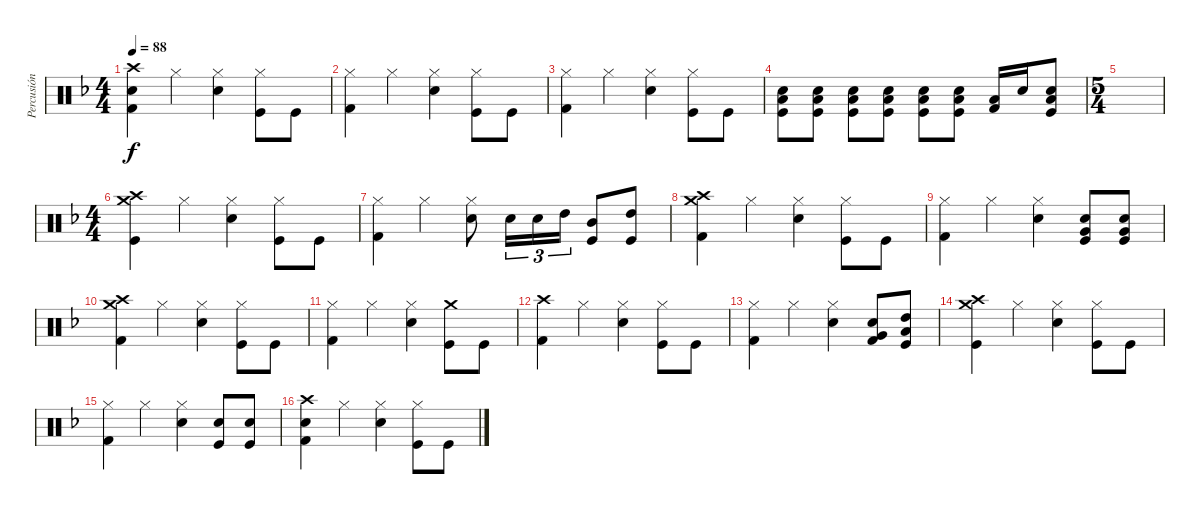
\track ("Percusión" "Percusión") {instrument percussion}
\staff {score}
\articulation defaults
\ts (4 4)
\tempo 88
\clef neutral
\ks f
("Crash high (hit)" "Snare (hit) 2" "Kick (hit) 2").4{dy f} "Hi-Hat (closed)".4 ("Snare (hit) 2" "Hi-Hat (closed)").4 ("Kick (hit)" "Hi-Hat (closed)").8 "Kick (hit)".8 |
("Hi-Hat (closed)" "Kick (hit) 2").4 "Hi-Hat (closed)".4 ("Snare (hit) 2" "Hi-Hat (closed)").4 ("Kick (hit)" "Hi-Hat (closed)").8 "Kick (hit)".8 |
("Hi-Hat (closed)" "Kick (hit) 2").4 "Hi-Hat (closed)".4 ("Snare (hit) 2" "Hi-Hat (closed)").4 ("Kick (hit)" "Hi-Hat (closed)").8 "Kick (hit)".8 |
("Snare (hit) 2" "Low Floor Tom (hit)" "Kick (hit)").8 ("Snare (hit) 2" "Low Floor Tom (hit)" "Kick (hit)").8 ("Snare (hit) 2" "Low Floor Tom (hit)" "Kick (hit)").8 ("Snare (hit) 2" "Low Floor Tom (hit)" "Kick (hit)").8 ("Snare (hit) 2" "Low Floor Tom (hit)" "Kick (hit)").8 ("Snare (hit) 2" "Low Floor Tom (hit)" "Kick (hit)").8 ("Low Floor Tom (hit)" "Kick (hit) 2").16 "Snare (hit) 2".16 ("Snare (hit) 2" "Low Floor Tom (hit)" "Kick (hit)").8 |
\ts (5 4)
|
\ts (4 4)
("Crash high (hit)" "Kick (hit)" "Crash medium (hit)").4 "Hi-Hat (closed)".4 ("Snare (hit) 2" "Hi-Hat (closed)").4 ("Kick (hit)" "Hi-Hat (closed)").8 "Kick (hit)".8 |
("Hi-Hat (closed)" "Kick (hit) 2").4 "Hi-Hat (closed)".4 ("Snare (hit) 2" "Hi-Hat (closed)").8 "Snare (hit) 2".16{tu (3 2)} "Snare (hit) 2".16{tu (3 2)} "High Tom (hit)".16{tu (3 2)} ("Kick (hit)" "Mid Tom (hit)").8 ("Kick (hit)" "High Tom (hit)").8 |
("Crash high (hit)" "Crash medium (hit)" "Kick (hit) 2").4 "Hi-Hat (closed)".4 ("Snare (hit) 2" "Hi-Hat (closed)").4 ("Kick (hit)" "Hi-Hat (closed)").8 "Kick (hit)".8 |
("Hi-Hat (closed)" "Kick (hit) 2").4 "Hi-Hat (closed)".4 ("Snare (hit) 2" "Hi-Hat (closed)").4 ("Kick (hit)" "Very Low Tom (hit)" "Snare (hit) 2").8 ("Kick (hit)" "Snare (hit) 2" "Very Low Tom (hit)").8 |
("Crash high (hit)" "Crash medium (hit)" "Kick (hit) 2").4 "Hi-Hat (closed)".4 ("Snare (hit) 2" "Hi-Hat (closed)").4 ("Kick (hit)" "Hi-Hat (closed)").8 "Kick (hit)".8 |
("Hi-Hat (closed)" "Kick (hit) 2").4 "Hi-Hat (closed)".4 ("Snare (hit) 2" "Hi-Hat (closed)").4 ("Kick (hit)" "Crash medium (hit)").8 "Kick (hit)".8 |
("Kick (hit) 2" "Crash high (hit)").4 "Hi-Hat (closed)".4 ("Snare (hit) 2" "Hi-Hat (closed)").4 ("Kick (hit)" "Hi-Hat (closed)").8 "Kick (hit)".8 |
("Hi-Hat (closed)" "Kick (hit) 2").4 "Hi-Hat (closed)".4 ("Snare (hit) 2" "Hi-Hat (closed)").4 ("Kick (hit) 2" "Very Low Tom (hit)" "Snare (hit) 2").8 ("Kick (hit)" "High Tom (hit)" "Low Tom (hit)").8 |
("Crash high (hit)" "Kick (hit)" "Crash medium (hit)").4 "Hi-Hat (closed)".4 ("Snare (hit) 2" "Hi-Hat (closed)").4 ("Kick (hit)" "Hi-Hat (closed)").8 "Kick (hit)".8 |
("Hi-Hat (closed)" "Kick (hit) 2").4 "Hi-Hat (closed)".4 ("Snare (hit) 2" "Hi-Hat (closed)").4 ("Kick (hit)" "Snare (hit) 2").8 ("Kick (hit)" "Snare (hit) 2").8 |
("Crash high (hit)" "Kick (hit) 2" "Snare (hit) 2").4 "Hi-Hat (closed)".4 ("Snare (hit) 2" "Hi-Hat (closed)").4 ("Kick (hit)" "Hi-Hat (closed)").8 "Kick (hit)".8
